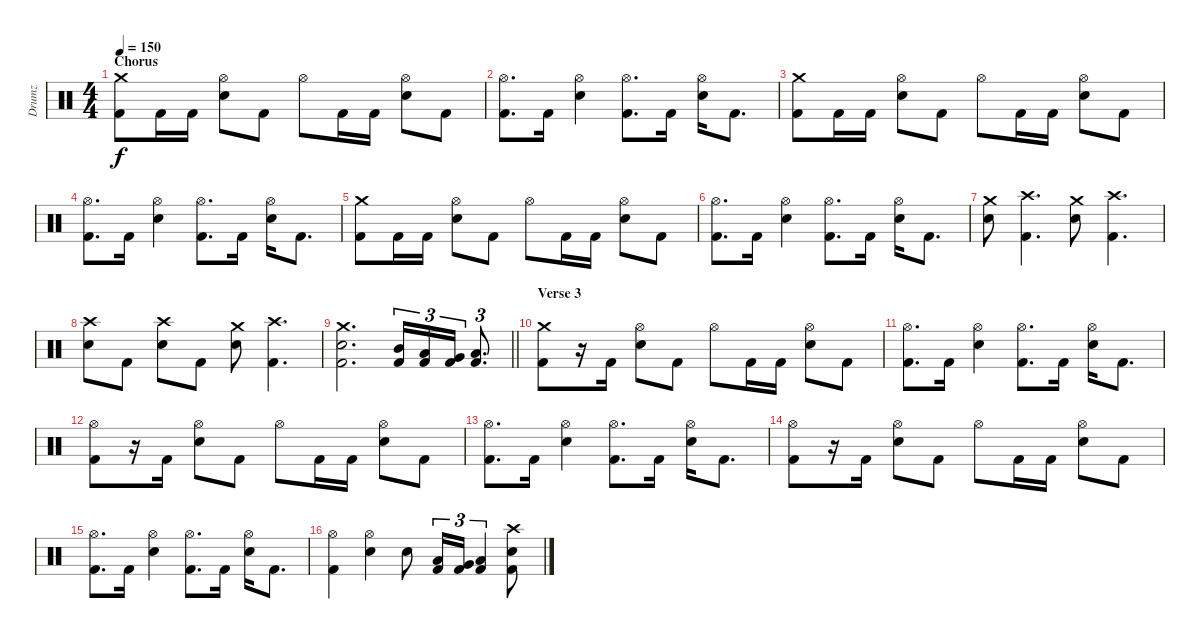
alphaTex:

\track ("Drumz" "Drumz") {instrument percussion}
\staff {score}
\articulation defaults
\ts (4 4)
\section ("" "Chorus")
\tempo 150
\clef neutral
\ks c
("Crash medium (hit)" "Kick (hit) 2").8{dy f} "Kick (hit) 2".16 "Kick (hit) 2".16 ("Hi-Hat (open)" "Electric Snare (hit)").8 "Kick (hit) 2".8 "Hi-Hat (open)".8 "Kick (hit) 2".16 "Kick (hit) 2".16 ("Hi-Hat (open)" "Electric Snare (hit)").8 "Kick (hit) 2".8 |
("Hi-Hat (open)" "Kick (hit) 2").8{d} "Kick (hit) 2".16 ("Hi-Hat (open)" "Electric Snare (hit)").4 ("Hi-Hat (open)" "Kick (hit) 2").8{d} "Kick (hit) 2".16 ("Hi-Hat (open)" "Electric Snare (hit)").16 "Kick (hit) 2".8{d} |
("Crash medium (hit)" "Kick (hit) 2").8 "Kick (hit) 2".16 "Kick (hit) 2".16 ("Hi-Hat (open)" "Electric Snare (hit)").8 "Kick (hit) 2".8 "Hi-Hat (open)".8 "Kick (hit) 2".16 "Kick (hit) 2".16 ("Hi-Hat (open)" "Electric Snare (hit)").8 "Kick (hit) 2".8 |
("Hi-Hat (open)" "Kick (hit) 2").8{d} "Kick (hit) 2".16 ("Hi-Hat (open)" "Electric Snare (hit)").4 ("Hi-Hat (open)" "Kick (hit) 2").8{d} "Kick (hit) 2".16 ("Hi-Hat (open)" "Electric Snare (hit)").16 "Kick (hit) 2".8{d} |
("Crash medium (hit)" "Kick (hit) 2").8 "Kick (hit) 2".16 "Kick (hit) 2".16 ("Hi-Hat (open)" "Electric Snare (hit)").8 "Kick (hit) 2".8 "Hi-Hat (open)".8 "Kick (hit) 2".16 "Kick (hit) 2".16 ("Hi-Hat (open)" "Electric Snare (hit)").8 "Kick (hit) 2".8 |
("Hi-Hat (open)" "Kick (hit) 2").8{d} "Kick (hit) 2".16 ("Hi-Hat (open)" "Electric Snare (hit)").4 ("Hi-Hat (open)" "Kick (hit) 2").8{d} "Kick (hit) 2".16 ("Hi-Hat (open)" "Electric Snare (hit)").16 "Kick (hit) 2".8{d} |
("Crash medium (hit)" "Electric Snare (hit)").8 ("Crash high (hit)" "Kick (hit) 2").4{d} ("Crash medium (hit)" "Electric Snare (hit)").8 ("Crash high (hit)" "Kick (hit) 2").4{d} |
("Crash high (hit)" "Electric Snare (hit)").8 "Kick (hit) 2".8 ("Crash high (hit)" "Electric Snare (hit)").8 "Kick (hit) 2".8 ("Crash medium (hit)" "Electric Snare (hit)").8 ("Crash high (hit)" "Kick (hit) 2").4{d} |
\barLineRight lightlight
("Crash medium (hit)" "Electric Snare (hit)" "Kick (hit) 2").2{d} ("Mid Tom (hit)" "Kick (hit) 2").16{tu (3 2)} ("Low Tom (hit)" "Kick (hit) 2").16{tu (3 2)} ("Very Low Tom (hit)" "Kick (hit) 2").16{tu (3 2)} ("Low Floor Tom (hit)" "Kick (hit) 2").8{d tu (3 2)} |
\section ("" "Verse 3")
("Crash medium (hit)" "Kick (hit) 2").8 r.16 "Kick (hit) 2".16 ("Hi-Hat (open)" "Electric Snare (hit)").8 "Kick (hit) 2".8 "Hi-Hat (open)".8 "Kick (hit) 2".16 "Kick (hit) 2".16 ("Hi-Hat (open)" "Electric Snare (hit)").8 "Kick (hit) 2".8 |
("Hi-Hat (open)" "Kick (hit) 2").8{d} "Kick (hit) 2".16 ("Hi-Hat (open)" "Electric Snare (hit)").4 ("Hi-Hat (open)" "Kick (hit) 2").8{d} "Kick (hit) 2".16 ("Hi-Hat (open)" "Electric Snare (hit)").16 "Kick (hit) 2".8{d} |
("Hi-Hat (open)" "Kick (hit) 2").8 r.16 "Kick (hit) 2".16 ("Hi-Hat (open)" "Electric Snare (hit)").8 "Kick (hit) 2".8 "Hi-Hat (open)".8 "Kick (hit) 2".16 "Kick (hit) 2".16 ("Hi-Hat (open)" "Electric Snare (hit)").8 "Kick (hit) 2".8 |
("Hi-Hat (open)" "Kick (hit) 2").8{d} "Kick (hit) 2".16 ("Hi-Hat (open)" "Electric Snare (hit)").4 ("Hi-Hat (open)" "Kick (hit) 2").8{d} "Kick (hit) 2".16 ("Hi-Hat (open)" "Electric Snare (hit)").16 "Kick (hit) 2".8{d} |
("Hi-Hat (open)" "Kick (hit) 2").8 r.16 "Kick (hit) 2".16 ("Hi-Hat (open)" "Electric Snare (hit)").8 "Kick (hit) 2".8 "Hi-Hat (open)".8 "Kick (hit) 2".16 "Kick (hit) 2".16 ("Hi-Hat (open)" "Electric Snare (hit)").8 "Kick (hit) 2".8 |
("Hi-Hat (open)" "Kick (hit) 2").8{d} "Kick (hit) 2".16 ("Hi-Hat (open)" "Electric Snare (hit)").4 ("Hi-Hat (open)" "Kick (hit) 2").8{d} "Kick (hit) 2".16 ("Hi-Hat (open)" "Electric Snare (hit)").16 "Kick (hit) 2".8{d} |
("Hi-Hat (open)" "Kick (hit) 2").4 ("Hi-Hat (open)" "Electric Snare (hit)").4 "Electric Snare (hit)".8 ("Low Tom (hit)" "Kick (hit) 2").16{tu (3 2)} ("Very Low Tom (hit)" "Kick (hit) 2").16{tu (3 2)} ("Low Floor Tom (hit)" "Kick (hit) 2").4{tu (3 2)} ("Crash high (hit)" "Electric Snare (hit)" "Kick (hit) 2").8
